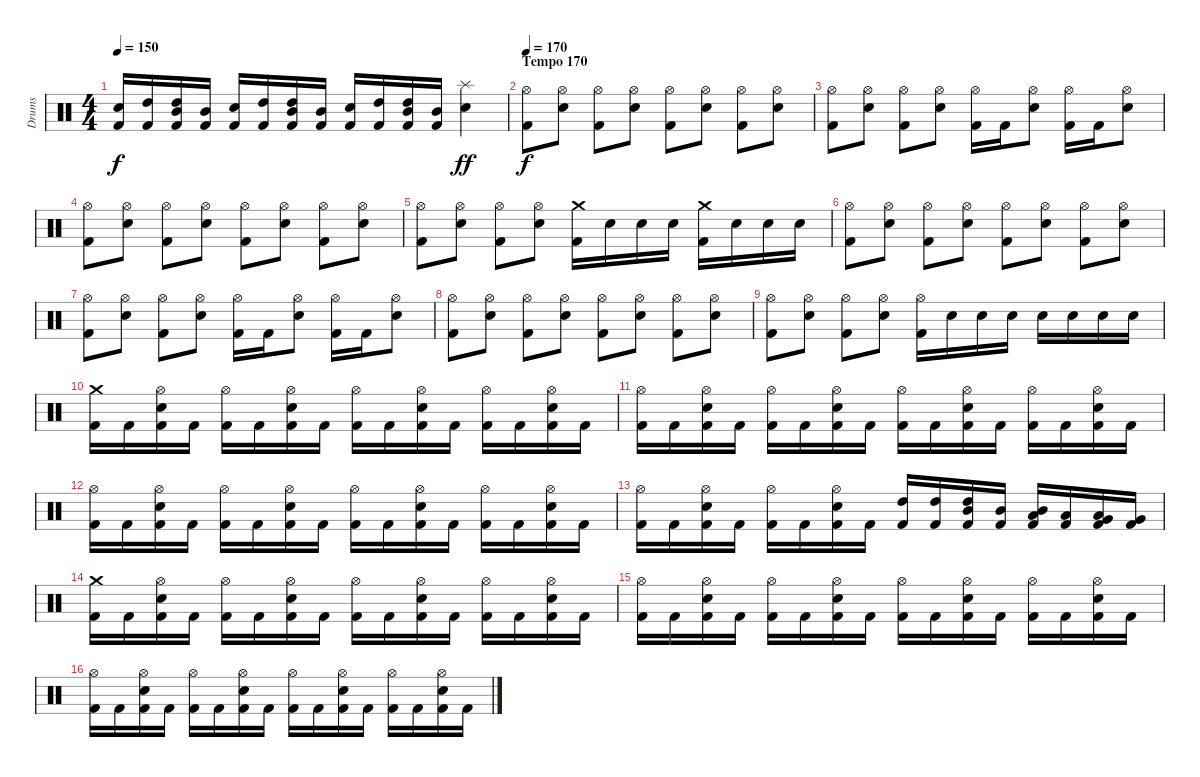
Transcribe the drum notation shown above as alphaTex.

\track ("Drums" "Drums") {instrument percussion}
\staff {score}
\articulation defaults
\ts (4 4)
\tempo 150
\clef neutral
\ks c
("Electric Snare (hit)" "Kick (hit) 2").16{dy f} ("High Tom (hit)" "Kick (hit) 2").16 ("High Tom (hit)" "Mid Tom (hit)" "Kick (hit) 2").16 ("Mid Tom (hit)" "Kick (hit) 2").16 ("Electric Snare (hit)" "Kick (hit) 2").16 ("High Tom (hit)" "Kick (hit) 2").16 ("High Tom (hit)" "Mid Tom (hit)" "Kick (hit) 2").16 ("Mid Tom (hit)" "Kick (hit) 2").16 ("Electric Snare (hit)" "Kick (hit) 2").16 ("High Tom (hit)" "Kick (hit) 2").16 ("High Tom (hit)" "Mid Tom (hit)" "Kick (hit) 2").16 ("Mid Tom (hit)" "Kick (hit) 2").16 ("Splash (hit)" "Electric Snare (hit)").4{dy ff} |
\section ("" "Tempo 170")
\tempo 170
("Hi-Hat (open)" "Kick (hit) 2").8{dy f} ("Hi-Hat (open)" "Electric Snare (hit)").8 ("Hi-Hat (open)" "Kick (hit) 2").8 ("Hi-Hat (open)" "Electric Snare (hit)").8 ("Hi-Hat (open)" "Kick (hit) 2").8 ("Hi-Hat (open)" "Electric Snare (hit)").8 ("Hi-Hat (open)" "Kick (hit) 2").8 ("Hi-Hat (open)" "Electric Snare (hit)").8 |
("Hi-Hat (open)" "Kick (hit) 2").8 ("Hi-Hat (open)" "Electric Snare (hit)").8 ("Hi-Hat (open)" "Kick (hit) 2").8 ("Hi-Hat (open)" "Electric Snare (hit)").8 ("Hi-Hat (open)" "Kick (hit) 2").16 "Kick (hit) 2".16 ("Hi-Hat (open)" "Electric Snare (hit)").8 ("Hi-Hat (open)" "Kick (hit) 2").16 "Kick (hit) 2".16 ("Hi-Hat (open)" "Electric Snare (hit)").8 |
("Hi-Hat (open)" "Kick (hit) 2").8 ("Hi-Hat (open)" "Electric Snare (hit)").8 ("Hi-Hat (open)" "Kick (hit) 2").8 ("Hi-Hat (open)" "Electric Snare (hit)").8 ("Hi-Hat (open)" "Kick (hit) 2").8 ("Hi-Hat (open)" "Electric Snare (hit)").8 ("Hi-Hat (open)" "Kick (hit) 2").8 ("Hi-Hat (open)" "Electric Snare (hit)").8 |
("Hi-Hat (open)" "Kick (hit) 2").8 ("Hi-Hat (open)" "Electric Snare (hit)").8 ("Hi-Hat (open)" "Kick (hit) 2").8 ("Hi-Hat (open)" "Electric Snare (hit)").8 ("Crash medium (hit)" "Kick (hit) 2").16 "Electric Snare (hit)".16 "Electric Snare (hit)".16 "Electric Snare (hit)".16 ("Crash medium (hit)" "Kick (hit) 2").16 "Electric Snare (hit)".16 "Electric Snare (hit)".16 "Electric Snare (hit)".16 |
("Hi-Hat (open)" "Kick (hit) 2").8 ("Hi-Hat (open)" "Electric Snare (hit)").8 ("Hi-Hat (open)" "Kick (hit) 2").8 ("Hi-Hat (open)" "Electric Snare (hit)").8 ("Hi-Hat (open)" "Kick (hit) 2").8 ("Hi-Hat (open)" "Electric Snare (hit)").8 ("Hi-Hat (open)" "Kick (hit) 2").8 ("Hi-Hat (open)" "Electric Snare (hit)").8 |
("Hi-Hat (open)" "Kick (hit) 2").8 ("Hi-Hat (open)" "Electric Snare (hit)").8 ("Hi-Hat (open)" "Kick (hit) 2").8 ("Hi-Hat (open)" "Electric Snare (hit)").8 ("Hi-Hat (open)" "Kick (hit) 2").16 "Kick (hit) 2".16 ("Hi-Hat (open)" "Electric Snare (hit)").8 ("Hi-Hat (open)" "Kick (hit) 2").16 "Kick (hit) 2".16 ("Hi-Hat (open)" "Electric Snare (hit)").8 |
("Hi-Hat (open)" "Kick (hit) 2").8 ("Hi-Hat (open)" "Electric Snare (hit)").8 ("Hi-Hat (open)" "Kick (hit) 2").8 ("Hi-Hat (open)" "Electric Snare (hit)").8 ("Hi-Hat (open)" "Kick (hit) 2").8 ("Hi-Hat (open)" "Electric Snare (hit)").8 ("Hi-Hat (open)" "Kick (hit) 2").8 ("Hi-Hat (open)" "Electric Snare (hit)").8 |
("Hi-Hat (open)" "Kick (hit) 2").8 ("Hi-Hat (open)" "Electric Snare (hit)").8 ("Hi-Hat (open)" "Kick (hit) 2").8 ("Hi-Hat (open)" "Electric Snare (hit)").8 ("Hi-Hat (open)" "Kick (hit) 2").16 "Electric Snare (hit)".16 "Electric Snare (hit)".16 "Electric Snare (hit)".16 "Electric Snare (hit)".16 "Electric Snare (hit)".16 "Electric Snare (hit)".16 "Electric Snare (hit)".16 |
("Crash medium (hit)" "Kick (hit) 2").16 "Kick (hit) 2".16 ("Hi-Hat (open)" "Electric Snare (hit)" "Kick (hit) 2").16 "Kick (hit) 2".16 ("Hi-Hat (open)" "Kick (hit) 2").16 "Kick (hit) 2".16 ("Hi-Hat (open)" "Electric Snare (hit)" "Kick (hit) 2").16 "Kick (hit) 2".16 ("Hi-Hat (open)" "Kick (hit) 2").16 "Kick (hit) 2".16 ("Hi-Hat (open)" "Electric Snare (hit)" "Kick (hit) 2").16 "Kick (hit) 2".16 ("Hi-Hat (open)" "Kick (hit) 2").16 "Kick (hit) 2".16 ("Hi-Hat (open)" "Electric Snare (hit)" "Kick (hit) 2").16 "Kick (hit) 2".16 |
("Hi-Hat (open)" "Kick (hit) 2").16 "Kick (hit) 2".16 ("Hi-Hat (open)" "Electric Snare (hit)" "Kick (hit) 2").16 "Kick (hit) 2".16 ("Hi-Hat (open)" "Kick (hit) 2").16 "Kick (hit) 2".16 ("Hi-Hat (open)" "Electric Snare (hit)" "Kick (hit) 2").16 "Kick (hit) 2".16 ("Hi-Hat (open)" "Kick (hit) 2").16 "Kick (hit) 2".16 ("Hi-Hat (open)" "Electric Snare (hit)" "Kick (hit) 2").16 "Kick (hit) 2".16 ("Hi-Hat (open)" "Kick (hit) 2").16 "Kick (hit) 2".16 ("Hi-Hat (open)" "Electric Snare (hit)" "Kick (hit) 2").16 "Kick (hit) 2".16 |
("Hi-Hat (open)" "Kick (hit) 2").16 "Kick (hit) 2".16 ("Hi-Hat (open)" "Electric Snare (hit)" "Kick (hit) 2").16 "Kick (hit) 2".16 ("Hi-Hat (open)" "Kick (hit) 2").16 "Kick (hit) 2".16 ("Hi-Hat (open)" "Electric Snare (hit)" "Kick (hit) 2").16 "Kick (hit) 2".16 ("Hi-Hat (open)" "Kick (hit) 2").16 "Kick (hit) 2".16 ("Hi-Hat (open)" "Electric Snare (hit)" "Kick (hit) 2").16 "Kick (hit) 2".16 ("Hi-Hat (open)" "Kick (hit) 2").16 "Kick (hit) 2".16 ("Hi-Hat (open)" "Electric Snare (hit)" "Kick (hit) 2").16 "Kick (hit) 2".16 |
("Hi-Hat (open)" "Kick (hit) 2").16 "Kick (hit) 2".16 ("Hi-Hat (open)" "Electric Snare (hit)" "Kick (hit) 2").16 "Kick (hit) 2".16 ("Hi-Hat (open)" "Kick (hit) 2").16 "Kick (hit) 2".16 ("Hi-Hat (open)" "Electric Snare (hit)" "Kick (hit) 2").16 "Kick (hit) 2".16 ("High Tom (hit)" "Kick (hit) 2").16 ("High Tom (hit)" "Kick (hit) 2").16 ("High Tom (hit)" "Mid Tom (hit)" "Kick (hit) 2").16 ("Mid Tom (hit)" "Kick (hit) 2").16 ("Mid Tom (hit)" "Low Tom (hit)" "Kick (hit) 2").16 ("Low Tom (hit)" "Kick (hit) 2").16 ("Low Tom (hit)" "Very Low Tom (hit)" "Kick (hit) 2").16 ("Very Low Tom (hit)" "Kick (hit) 2").16 |
("Crash medium (hit)" "Kick (hit) 2").16 "Kick (hit) 2".16 ("Hi-Hat (open)" "Electric Snare (hit)" "Kick (hit) 2").16 "Kick (hit) 2".16 ("Hi-Hat (open)" "Kick (hit) 2").16 "Kick (hit) 2".16 ("Hi-Hat (open)" "Electric Snare (hit)" "Kick (hit) 2").16 "Kick (hit) 2".16 ("Hi-Hat (open)" "Kick (hit) 2").16 "Kick (hit) 2".16 ("Hi-Hat (open)" "Electric Snare (hit)" "Kick (hit) 2").16 "Kick (hit) 2".16 ("Hi-Hat (open)" "Kick (hit) 2").16 "Kick (hit) 2".16 ("Hi-Hat (open)" "Electric Snare (hit)" "Kick (hit) 2").16 "Kick (hit) 2".16 |
("Hi-Hat (open)" "Kick (hit) 2").16 "Kick (hit) 2".16 ("Hi-Hat (open)" "Electric Snare (hit)" "Kick (hit) 2").16 "Kick (hit) 2".16 ("Hi-Hat (open)" "Kick (hit) 2").16 "Kick (hit) 2".16 ("Hi-Hat (open)" "Electric Snare (hit)" "Kick (hit) 2").16 "Kick (hit) 2".16 ("Hi-Hat (open)" "Kick (hit) 2").16 "Kick (hit) 2".16 ("Hi-Hat (open)" "Electric Snare (hit)" "Kick (hit) 2").16 "Kick (hit) 2".16 ("Hi-Hat (open)" "Kick (hit) 2").16 "Kick (hit) 2".16 ("Hi-Hat (open)" "Electric Snare (hit)" "Kick (hit) 2").16 "Kick (hit) 2".16 |
("Hi-Hat (open)" "Kick (hit) 2").16 "Kick (hit) 2".16 ("Hi-Hat (open)" "Electric Snare (hit)" "Kick (hit) 2").16 "Kick (hit) 2".16 ("Hi-Hat (open)" "Kick (hit) 2").16 "Kick (hit) 2".16 ("Hi-Hat (open)" "Electric Snare (hit)" "Kick (hit) 2").16 "Kick (hit) 2".16 ("Hi-Hat (open)" "Kick (hit) 2").16 "Kick (hit) 2".16 ("Hi-Hat (open)" "Electric Snare (hit)" "Kick (hit) 2").16 "Kick (hit) 2".16 ("Hi-Hat (open)" "Kick (hit) 2").16 "Kick (hit) 2".16 ("Hi-Hat (open)" "Electric Snare (hit)" "Kick (hit) 2").16 "Kick (hit) 2".16
